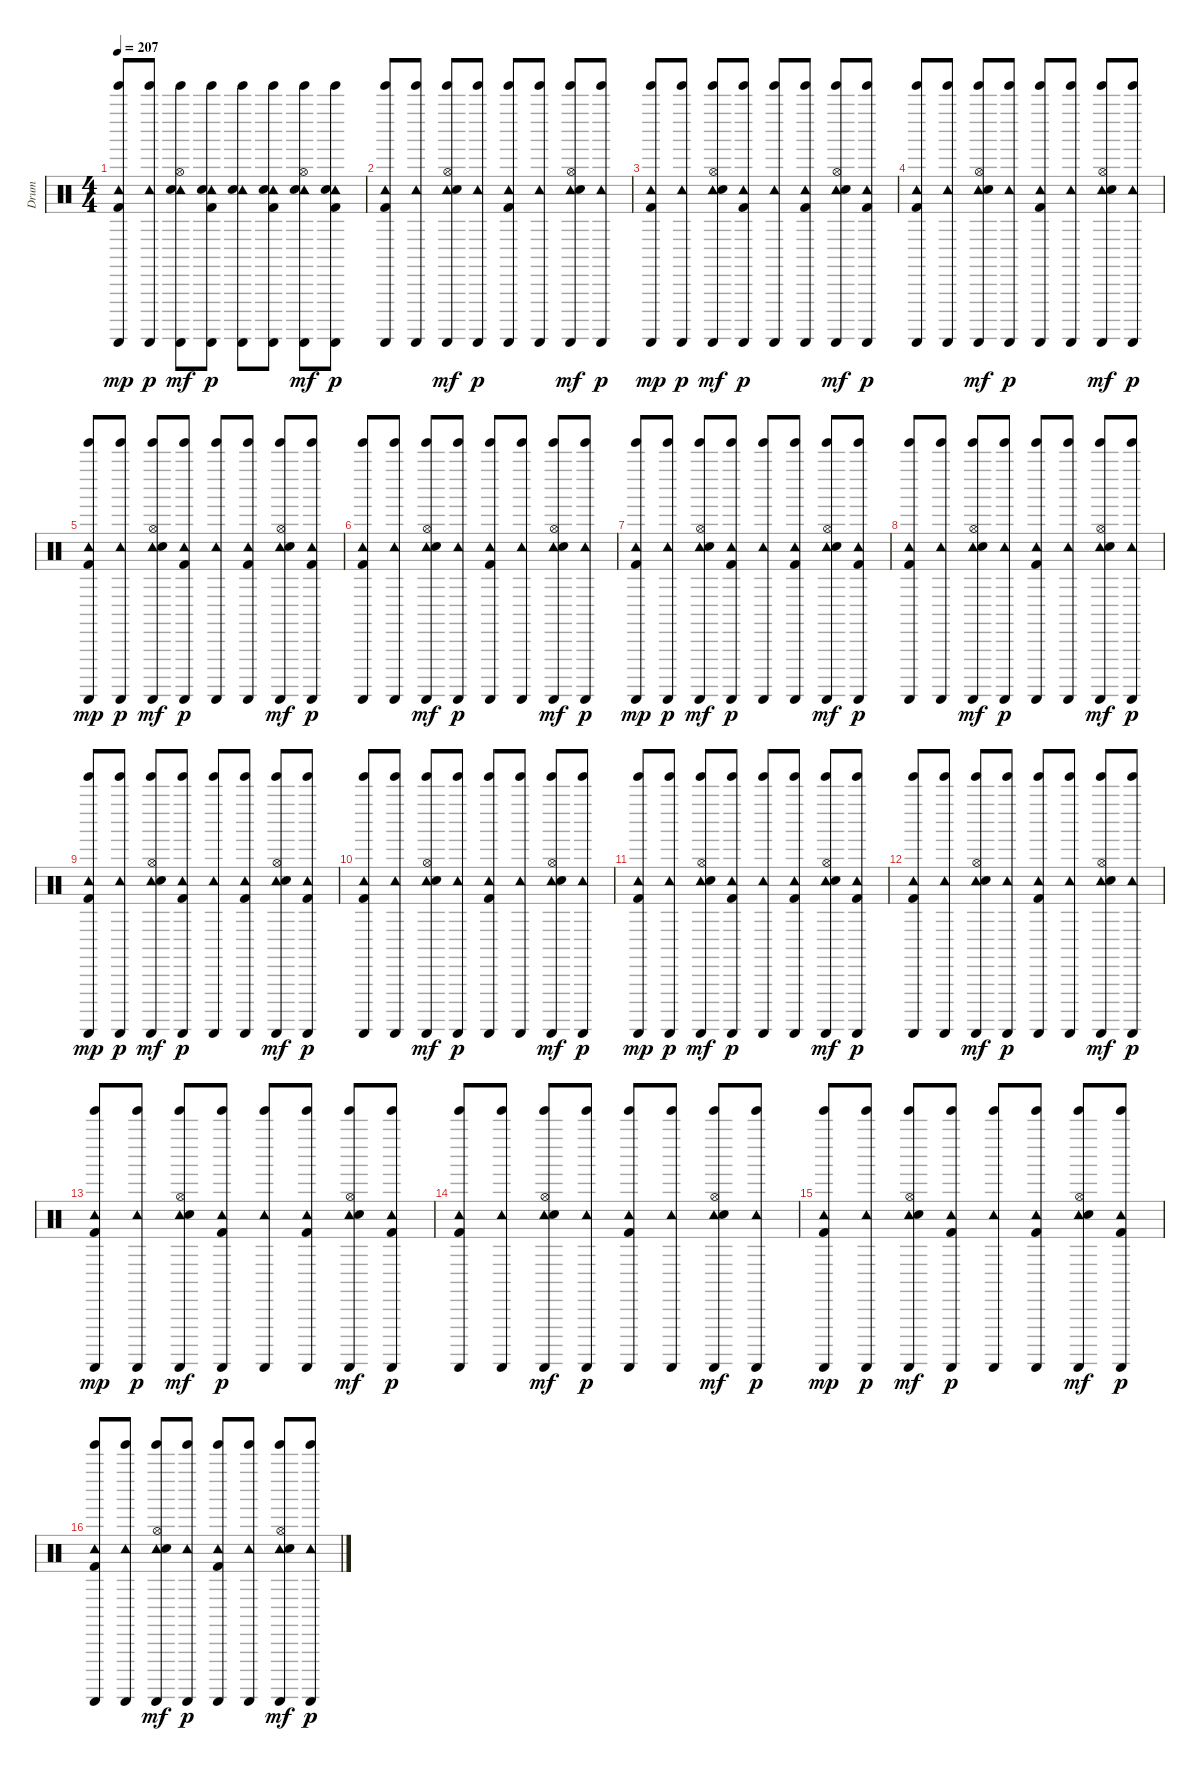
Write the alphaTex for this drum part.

\track ("Drum" "Drum") {instrument percussion}
\staff {score}
\articulation defaults
\ts (4 4)
\tempo 207
\clef neutral
\ks c
("Tambourine (hit)" "Kick (hit) 2" "Tinkle Bell (hit)" "Guiro (scrap-return)").8{dy mp} ("Tambourine (hit)" "Tinkle Bell (hit)" "Guiro (scrap-return)").8{dy p} ("Tambourine (hit)" "Hi-Hat (open)" "Snare (hit) 2" "Tinkle Bell (hit)" "Guiro (scrap-return)").8{dy mf} ("Tambourine (hit)" "Kick (hit) 2" "Tinkle Bell (hit)" "Guiro (scrap-return)" "Hand Clap (hit)").8{dy p} ("Tambourine (hit)" "Tinkle Bell (hit)" "Guiro (scrap-return)" "Hand Clap (hit)").8 ("Tambourine (hit)" "Kick (hit) 2" "Tinkle Bell (hit)" "Guiro (scrap-return)" "Hand Clap (hit)").8 ("Tambourine (hit)" "Hi-Hat (open)" "Snare (hit) 2" "Tinkle Bell (hit)" "Guiro (scrap-return)").8{dy mf} ("Tambourine (hit)" "Kick (hit) 2" "Tinkle Bell (hit)" "Guiro (scrap-return)" "Hand Clap (hit)").8{dy p} |
("Tambourine (hit)" "Kick (hit) 2" "Tinkle Bell (hit)" "Guiro (scrap-return)").8 ("Tambourine (hit)" "Tinkle Bell (hit)" "Guiro (scrap-return)").8 ("Tambourine (hit)" "Hi-Hat (open)" "Snare (hit) 2" "Tinkle Bell (hit)" "Guiro (scrap-return)").8{dy mf} ("Tambourine (hit)" "Tinkle Bell (hit)" "Guiro (scrap-return)").8{dy p} ("Tambourine (hit)" "Kick (hit) 2" "Tinkle Bell (hit)" "Guiro (scrap-return)").8 ("Tambourine (hit)" "Tinkle Bell (hit)" "Guiro (scrap-return)").8 ("Tambourine (hit)" "Hi-Hat (open)" "Snare (hit) 2" "Tinkle Bell (hit)" "Guiro (scrap-return)").8{dy mf} ("Tambourine (hit)" "Tinkle Bell (hit)" "Guiro (scrap-return)").8{dy p} |
("Tambourine (hit)" "Kick (hit) 2" "Tinkle Bell (hit)" "Guiro (scrap-return)").8{dy mp} ("Tambourine (hit)" "Tinkle Bell (hit)" "Guiro (scrap-return)").8{dy p} ("Tambourine (hit)" "Hi-Hat (open)" "Snare (hit) 2" "Tinkle Bell (hit)" "Guiro (scrap-return)").8{dy mf} ("Tambourine (hit)" "Kick (hit) 2" "Tinkle Bell (hit)" "Guiro (scrap-return)").8{dy p} ("Tambourine (hit)" "Tinkle Bell (hit)" "Guiro (scrap-return)").8 ("Tambourine (hit)" "Kick (hit) 2" "Tinkle Bell (hit)" "Guiro (scrap-return)").8 ("Tambourine (hit)" "Hi-Hat (open)" "Snare (hit) 2" "Tinkle Bell (hit)" "Guiro (scrap-return)").8{dy mf} ("Tambourine (hit)" "Kick (hit) 2" "Tinkle Bell (hit)" "Guiro (scrap-return)").8{dy p} |
("Tambourine (hit)" "Kick (hit) 2" "Tinkle Bell (hit)" "Guiro (scrap-return)").8 ("Tambourine (hit)" "Tinkle Bell (hit)" "Guiro (scrap-return)").8 ("Tambourine (hit)" "Hi-Hat (open)" "Snare (hit) 2" "Tinkle Bell (hit)" "Guiro (scrap-return)").8{dy mf} ("Tambourine (hit)" "Tinkle Bell (hit)" "Guiro (scrap-return)").8{dy p} ("Tambourine (hit)" "Kick (hit) 2" "Tinkle Bell (hit)" "Guiro (scrap-return)").8 ("Tambourine (hit)" "Tinkle Bell (hit)" "Guiro (scrap-return)").8 ("Tambourine (hit)" "Hi-Hat (open)" "Snare (hit) 2" "Tinkle Bell (hit)" "Guiro (scrap-return)").8{dy mf} ("Tambourine (hit)" "Tinkle Bell (hit)" "Guiro (scrap-return)").8{dy p} |
("Tambourine (hit)" "Kick (hit) 2" "Tinkle Bell (hit)" "Guiro (scrap-return)").8{dy mp} ("Tambourine (hit)" "Tinkle Bell (hit)" "Guiro (scrap-return)").8{dy p} ("Tambourine (hit)" "Hi-Hat (open)" "Snare (hit) 2" "Tinkle Bell (hit)" "Guiro (scrap-return)").8{dy mf} ("Tambourine (hit)" "Kick (hit) 2" "Tinkle Bell (hit)" "Guiro (scrap-return)").8{dy p} ("Tambourine (hit)" "Tinkle Bell (hit)" "Guiro (scrap-return)").8 ("Tambourine (hit)" "Kick (hit) 2" "Tinkle Bell (hit)" "Guiro (scrap-return)").8 ("Tambourine (hit)" "Hi-Hat (open)" "Snare (hit) 2" "Tinkle Bell (hit)" "Guiro (scrap-return)").8{dy mf} ("Tambourine (hit)" "Kick (hit) 2" "Tinkle Bell (hit)" "Guiro (scrap-return)").8{dy p} |
("Tambourine (hit)" "Kick (hit) 2" "Tinkle Bell (hit)" "Guiro (scrap-return)").8 ("Tambourine (hit)" "Tinkle Bell (hit)" "Guiro (scrap-return)").8 ("Tambourine (hit)" "Hi-Hat (open)" "Snare (hit) 2" "Tinkle Bell (hit)" "Guiro (scrap-return)").8{dy mf} ("Tambourine (hit)" "Tinkle Bell (hit)" "Guiro (scrap-return)").8{dy p} ("Tambourine (hit)" "Kick (hit) 2" "Tinkle Bell (hit)" "Guiro (scrap-return)").8 ("Tambourine (hit)" "Tinkle Bell (hit)" "Guiro (scrap-return)").8 ("Tambourine (hit)" "Hi-Hat (open)" "Snare (hit) 2" "Tinkle Bell (hit)" "Guiro (scrap-return)").8{dy mf} ("Tambourine (hit)" "Tinkle Bell (hit)" "Guiro (scrap-return)").8{dy p} |
("Tambourine (hit)" "Kick (hit) 2" "Tinkle Bell (hit)" "Guiro (scrap-return)").8{dy mp} ("Tambourine (hit)" "Tinkle Bell (hit)" "Guiro (scrap-return)").8{dy p} ("Tambourine (hit)" "Hi-Hat (open)" "Snare (hit) 2" "Tinkle Bell (hit)" "Guiro (scrap-return)").8{dy mf} ("Tambourine (hit)" "Kick (hit) 2" "Tinkle Bell (hit)" "Guiro (scrap-return)").8{dy p} ("Tambourine (hit)" "Tinkle Bell (hit)" "Guiro (scrap-return)").8 ("Tambourine (hit)" "Kick (hit) 2" "Tinkle Bell (hit)" "Guiro (scrap-return)").8 ("Tambourine (hit)" "Hi-Hat (open)" "Snare (hit) 2" "Tinkle Bell (hit)" "Guiro (scrap-return)").8{dy mf} ("Tambourine (hit)" "Kick (hit) 2" "Tinkle Bell (hit)" "Guiro (scrap-return)").8{dy p} |
("Tambourine (hit)" "Kick (hit) 2" "Tinkle Bell (hit)" "Guiro (scrap-return)").8 ("Tambourine (hit)" "Tinkle Bell (hit)" "Guiro (scrap-return)").8 ("Tambourine (hit)" "Hi-Hat (open)" "Snare (hit) 2" "Tinkle Bell (hit)" "Guiro (scrap-return)").8{dy mf} ("Tambourine (hit)" "Tinkle Bell (hit)" "Guiro (scrap-return)").8{dy p} ("Tambourine (hit)" "Kick (hit) 2" "Tinkle Bell (hit)" "Guiro (scrap-return)").8 ("Tambourine (hit)" "Tinkle Bell (hit)" "Guiro (scrap-return)").8 ("Tambourine (hit)" "Hi-Hat (open)" "Snare (hit) 2" "Tinkle Bell (hit)" "Guiro (scrap-return)").8{dy mf} ("Tambourine (hit)" "Tinkle Bell (hit)" "Guiro (scrap-return)").8{dy p} |
("Tambourine (hit)" "Kick (hit) 2" "Tinkle Bell (hit)" "Guiro (scrap-return)").8{dy mp} ("Tambourine (hit)" "Tinkle Bell (hit)" "Guiro (scrap-return)").8{dy p} ("Tambourine (hit)" "Hi-Hat (open)" "Snare (hit) 2" "Tinkle Bell (hit)" "Guiro (scrap-return)").8{dy mf} ("Tambourine (hit)" "Kick (hit) 2" "Tinkle Bell (hit)" "Guiro (scrap-return)").8{dy p} ("Tambourine (hit)" "Tinkle Bell (hit)" "Guiro (scrap-return)").8 ("Tambourine (hit)" "Kick (hit) 2" "Tinkle Bell (hit)" "Guiro (scrap-return)").8 ("Tambourine (hit)" "Hi-Hat (open)" "Snare (hit) 2" "Tinkle Bell (hit)" "Guiro (scrap-return)").8{dy mf} ("Tambourine (hit)" "Kick (hit) 2" "Tinkle Bell (hit)" "Guiro (scrap-return)").8{dy p} |
("Tambourine (hit)" "Kick (hit) 2" "Tinkle Bell (hit)" "Guiro (scrap-return)").8 ("Tambourine (hit)" "Tinkle Bell (hit)" "Guiro (scrap-return)").8 ("Tambourine (hit)" "Hi-Hat (open)" "Snare (hit) 2" "Tinkle Bell (hit)" "Guiro (scrap-return)").8{dy mf} ("Tambourine (hit)" "Tinkle Bell (hit)" "Guiro (scrap-return)").8{dy p} ("Tambourine (hit)" "Kick (hit) 2" "Tinkle Bell (hit)" "Guiro (scrap-return)").8 ("Tambourine (hit)" "Tinkle Bell (hit)" "Guiro (scrap-return)").8 ("Tambourine (hit)" "Hi-Hat (open)" "Snare (hit) 2" "Tinkle Bell (hit)" "Guiro (scrap-return)").8{dy mf} ("Tambourine (hit)" "Tinkle Bell (hit)" "Guiro (scrap-return)").8{dy p} |
("Tambourine (hit)" "Kick (hit) 2" "Tinkle Bell (hit)" "Guiro (scrap-return)").8{dy mp} ("Tambourine (hit)" "Tinkle Bell (hit)" "Guiro (scrap-return)").8{dy p} ("Tambourine (hit)" "Hi-Hat (open)" "Snare (hit) 2" "Tinkle Bell (hit)" "Guiro (scrap-return)").8{dy mf} ("Tambourine (hit)" "Kick (hit) 2" "Tinkle Bell (hit)" "Guiro (scrap-return)").8{dy p} ("Tambourine (hit)" "Tinkle Bell (hit)" "Guiro (scrap-return)").8 ("Tambourine (hit)" "Kick (hit) 2" "Tinkle Bell (hit)" "Guiro (scrap-return)").8 ("Tambourine (hit)" "Hi-Hat (open)" "Snare (hit) 2" "Tinkle Bell (hit)" "Guiro (scrap-return)").8{dy mf} ("Tambourine (hit)" "Kick (hit) 2" "Tinkle Bell (hit)" "Guiro (scrap-return)").8{dy p} |
("Tambourine (hit)" "Kick (hit) 2" "Tinkle Bell (hit)" "Guiro (scrap-return)").8 ("Tambourine (hit)" "Tinkle Bell (hit)" "Guiro (scrap-return)").8 ("Tambourine (hit)" "Hi-Hat (open)" "Snare (hit) 2" "Tinkle Bell (hit)" "Guiro (scrap-return)").8{dy mf} ("Tambourine (hit)" "Tinkle Bell (hit)" "Guiro (scrap-return)").8{dy p} ("Tambourine (hit)" "Kick (hit) 2" "Tinkle Bell (hit)" "Guiro (scrap-return)").8 ("Tambourine (hit)" "Tinkle Bell (hit)" "Guiro (scrap-return)").8 ("Tambourine (hit)" "Hi-Hat (open)" "Snare (hit) 2" "Tinkle Bell (hit)" "Guiro (scrap-return)").8{dy mf} ("Tambourine (hit)" "Tinkle Bell (hit)" "Guiro (scrap-return)").8{dy p} |
("Tambourine (hit)" "Kick (hit) 2" "Tinkle Bell (hit)" "Guiro (scrap-return)").8{dy mp} ("Tambourine (hit)" "Tinkle Bell (hit)" "Guiro (scrap-return)").8{dy p} ("Tambourine (hit)" "Hi-Hat (open)" "Snare (hit) 2" "Tinkle Bell (hit)" "Guiro (scrap-return)").8{dy mf} ("Tambourine (hit)" "Kick (hit) 2" "Tinkle Bell (hit)" "Guiro (scrap-return)").8{dy p} ("Tambourine (hit)" "Tinkle Bell (hit)" "Guiro (scrap-return)").8 ("Tambourine (hit)" "Kick (hit) 2" "Tinkle Bell (hit)" "Guiro (scrap-return)").8 ("Tambourine (hit)" "Hi-Hat (open)" "Snare (hit) 2" "Tinkle Bell (hit)" "Guiro (scrap-return)").8{dy mf} ("Tambourine (hit)" "Kick (hit) 2" "Tinkle Bell (hit)" "Guiro (scrap-return)").8{dy p} |
("Tambourine (hit)" "Kick (hit) 2" "Tinkle Bell (hit)" "Guiro (scrap-return)").8 ("Tambourine (hit)" "Tinkle Bell (hit)" "Guiro (scrap-return)").8 ("Tambourine (hit)" "Hi-Hat (open)" "Snare (hit) 2" "Tinkle Bell (hit)" "Guiro (scrap-return)").8{dy mf} ("Tambourine (hit)" "Tinkle Bell (hit)" "Guiro (scrap-return)").8{dy p} ("Tambourine (hit)" "Kick (hit) 2" "Tinkle Bell (hit)" "Guiro (scrap-return)").8 ("Tambourine (hit)" "Tinkle Bell (hit)" "Guiro (scrap-return)").8 ("Tambourine (hit)" "Hi-Hat (open)" "Snare (hit) 2" "Tinkle Bell (hit)" "Guiro (scrap-return)").8{dy mf} ("Tambourine (hit)" "Tinkle Bell (hit)" "Guiro (scrap-return)").8{dy p} |
("Tambourine (hit)" "Kick (hit) 2" "Tinkle Bell (hit)" "Guiro (scrap-return)").8{dy mp} ("Tambourine (hit)" "Tinkle Bell (hit)" "Guiro (scrap-return)").8{dy p} ("Tambourine (hit)" "Hi-Hat (open)" "Snare (hit) 2" "Tinkle Bell (hit)" "Guiro (scrap-return)").8{dy mf} ("Tambourine (hit)" "Kick (hit) 2" "Tinkle Bell (hit)" "Guiro (scrap-return)").8{dy p} ("Tambourine (hit)" "Tinkle Bell (hit)" "Guiro (scrap-return)").8 ("Tambourine (hit)" "Kick (hit) 2" "Tinkle Bell (hit)" "Guiro (scrap-return)").8 ("Tambourine (hit)" "Hi-Hat (open)" "Snare (hit) 2" "Tinkle Bell (hit)" "Guiro (scrap-return)").8{dy mf} ("Tambourine (hit)" "Kick (hit) 2" "Tinkle Bell (hit)" "Guiro (scrap-return)").8{dy p} |
("Tambourine (hit)" "Kick (hit) 2" "Tinkle Bell (hit)" "Guiro (scrap-return)").8 ("Tambourine (hit)" "Tinkle Bell (hit)" "Guiro (scrap-return)").8 ("Tambourine (hit)" "Hi-Hat (open)" "Snare (hit) 2" "Tinkle Bell (hit)" "Guiro (scrap-return)").8{dy mf} ("Tambourine (hit)" "Tinkle Bell (hit)" "Guiro (scrap-return)").8{dy p} ("Tambourine (hit)" "Kick (hit) 2" "Tinkle Bell (hit)" "Guiro (scrap-return)").8 ("Tambourine (hit)" "Tinkle Bell (hit)" "Guiro (scrap-return)").8 ("Tambourine (hit)" "Hi-Hat (open)" "Snare (hit) 2" "Tinkle Bell (hit)" "Guiro (scrap-return)").8{dy mf} ("Tambourine (hit)" "Tinkle Bell (hit)" "Guiro (scrap-return)").8{dy p}
